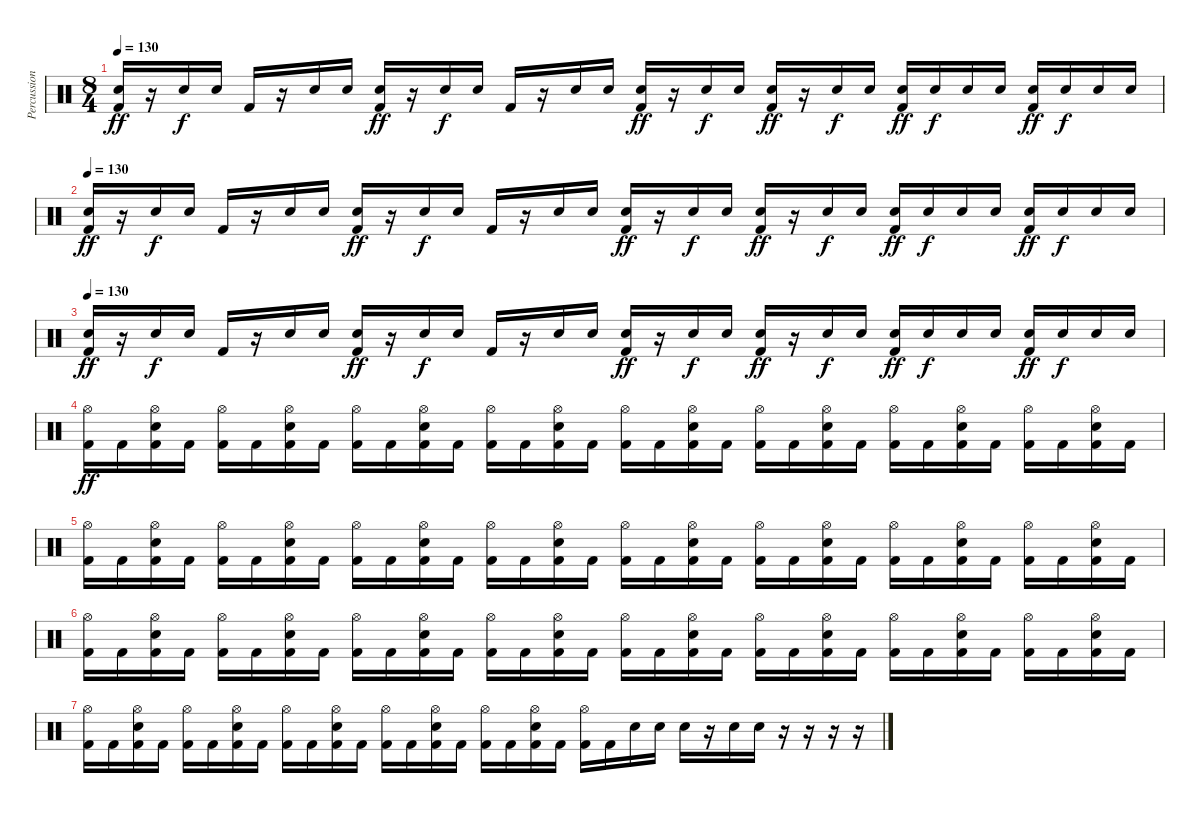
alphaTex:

\track ("Percussion" "Percussion") {instrument percussion}
\staff {score}
\articulation defaults
\ts (8 4)
\tempo 130
\clef neutral
\ks c
("Snare (hit) 2" "Kick (hit) 2").16{dy ff} r.16 "Snare (hit) 2".16{dy f} "Snare (hit) 2".16 "Kick (hit) 2".16 r.16 "Snare (hit) 2".16 "Snare (hit) 2".16 ("Snare (hit) 2" "Kick (hit) 2").16{dy ff} r.16 "Snare (hit) 2".16{dy f} "Snare (hit) 2".16 "Kick (hit) 2".16 r.16 "Snare (hit) 2".16 "Snare (hit) 2".16 ("Snare (hit) 2" "Kick (hit) 2").16{dy ff} r.16 "Snare (hit) 2".16{dy f} "Snare (hit) 2".16 ("Snare (hit) 2" "Kick (hit) 2").16{dy ff} r.16 "Snare (hit) 2".16{dy f} "Snare (hit) 2".16 ("Snare (hit) 2" "Kick (hit) 2").16{dy ff} "Snare (hit) 2".16{dy f} "Snare (hit) 2".16 "Snare (hit) 2".16 ("Snare (hit) 2" "Kick (hit) 2").16{dy ff} "Snare (hit) 2".16{dy f} "Snare (hit) 2".16 "Snare (hit) 2".16 |
\tempo 130
("Snare (hit) 2" "Kick (hit) 2").16{dy ff} r.16 "Snare (hit) 2".16{dy f} "Snare (hit) 2".16 "Kick (hit) 2".16 r.16 "Snare (hit) 2".16 "Snare (hit) 2".16 ("Snare (hit) 2" "Kick (hit) 2").16{dy ff} r.16 "Snare (hit) 2".16{dy f} "Snare (hit) 2".16 "Kick (hit) 2".16 r.16 "Snare (hit) 2".16 "Snare (hit) 2".16 ("Snare (hit) 2" "Kick (hit) 2").16{dy ff} r.16 "Snare (hit) 2".16{dy f} "Snare (hit) 2".16 ("Snare (hit) 2" "Kick (hit) 2").16{dy ff} r.16 "Snare (hit) 2".16{dy f} "Snare (hit) 2".16 ("Snare (hit) 2" "Kick (hit) 2").16{dy ff} "Snare (hit) 2".16{dy f} "Snare (hit) 2".16 "Snare (hit) 2".16 ("Snare (hit) 2" "Kick (hit) 2").16{dy ff} "Snare (hit) 2".16{dy f} "Snare (hit) 2".16 "Snare (hit) 2".16 |
\tempo 130
("Snare (hit) 2" "Kick (hit) 2").16{dy ff} r.16 "Snare (hit) 2".16{dy f} "Snare (hit) 2".16 "Kick (hit) 2".16 r.16 "Snare (hit) 2".16 "Snare (hit) 2".16 ("Snare (hit) 2" "Kick (hit) 2").16{dy ff} r.16 "Snare (hit) 2".16{dy f} "Snare (hit) 2".16 "Kick (hit) 2".16 r.16 "Snare (hit) 2".16 "Snare (hit) 2".16 ("Snare (hit) 2" "Kick (hit) 2").16{dy ff} r.16 "Snare (hit) 2".16{dy f} "Snare (hit) 2".16 ("Snare (hit) 2" "Kick (hit) 2").16{dy ff} r.16 "Snare (hit) 2".16{dy f} "Snare (hit) 2".16 ("Snare (hit) 2" "Kick (hit) 2").16{dy ff} "Snare (hit) 2".16{dy f} "Snare (hit) 2".16 "Snare (hit) 2".16 ("Snare (hit) 2" "Kick (hit) 2").16{dy ff} "Snare (hit) 2".16{dy f} "Snare (hit) 2".16 "Snare (hit) 2".16 |
("Hi-Hat (open)" "Kick (hit) 2").16{dy ff} "Kick (hit) 2".16 ("Hi-Hat (open)" "Snare (hit) 2" "Kick (hit) 2").16 "Kick (hit) 2".16 ("Hi-Hat (open)" "Kick (hit) 2").16 "Kick (hit) 2".16 ("Hi-Hat (open)" "Snare (hit) 2" "Kick (hit) 2").16 "Kick (hit) 2".16 ("Hi-Hat (open)" "Kick (hit) 2").16 "Kick (hit) 2".16 ("Hi-Hat (open)" "Snare (hit) 2" "Kick (hit) 2").16 "Kick (hit) 2".16 ("Hi-Hat (open)" "Kick (hit) 2").16 "Kick (hit) 2".16 ("Hi-Hat (open)" "Snare (hit) 2" "Kick (hit) 2").16 "Kick (hit) 2".16 ("Hi-Hat (open)" "Kick (hit) 2").16 "Kick (hit) 2".16 ("Hi-Hat (open)" "Snare (hit) 2" "Kick (hit) 2").16 "Kick (hit) 2".16 ("Hi-Hat (open)" "Kick (hit) 2").16 "Kick (hit) 2".16 ("Hi-Hat (open)" "Snare (hit) 2" "Kick (hit) 2").16 "Kick (hit) 2".16 ("Hi-Hat (open)" "Kick (hit) 2").16 "Kick (hit) 2".16 ("Hi-Hat (open)" "Snare (hit) 2" "Kick (hit) 2").16 "Kick (hit) 2".16 ("Hi-Hat (open)" "Kick (hit) 2").16 "Kick (hit) 2".16 ("Hi-Hat (open)" "Snare (hit) 2" "Kick (hit) 2").16 "Kick (hit) 2".16 |
("Hi-Hat (open)" "Kick (hit) 2").16 "Kick (hit) 2".16 ("Hi-Hat (open)" "Snare (hit) 2" "Kick (hit) 2").16 "Kick (hit) 2".16 ("Hi-Hat (open)" "Kick (hit) 2").16 "Kick (hit) 2".16 ("Hi-Hat (open)" "Snare (hit) 2" "Kick (hit) 2").16 "Kick (hit) 2".16 ("Hi-Hat (open)" "Kick (hit) 2").16 "Kick (hit) 2".16 ("Hi-Hat (open)" "Snare (hit) 2" "Kick (hit) 2").16 "Kick (hit) 2".16 ("Hi-Hat (open)" "Kick (hit) 2").16 "Kick (hit) 2".16 ("Hi-Hat (open)" "Snare (hit) 2" "Kick (hit) 2").16 "Kick (hit) 2".16 ("Hi-Hat (open)" "Kick (hit) 2").16 "Kick (hit) 2".16 ("Hi-Hat (open)" "Snare (hit) 2" "Kick (hit) 2").16 "Kick (hit) 2".16 ("Hi-Hat (open)" "Kick (hit) 2").16 "Kick (hit) 2".16 ("Hi-Hat (open)" "Snare (hit) 2" "Kick (hit) 2").16 "Kick (hit) 2".16 ("Hi-Hat (open)" "Kick (hit) 2").16 "Kick (hit) 2".16 ("Hi-Hat (open)" "Snare (hit) 2" "Kick (hit) 2").16 "Kick (hit) 2".16 ("Hi-Hat (open)" "Kick (hit) 2").16 "Kick (hit) 2".16 ("Hi-Hat (open)" "Snare (hit) 2" "Kick (hit) 2").16 "Kick (hit) 2".16 |
("Hi-Hat (open)" "Kick (hit) 2").16 "Kick (hit) 2".16 ("Hi-Hat (open)" "Snare (hit) 2" "Kick (hit) 2").16 "Kick (hit) 2".16 ("Hi-Hat (open)" "Kick (hit) 2").16 "Kick (hit) 2".16 ("Hi-Hat (open)" "Snare (hit) 2" "Kick (hit) 2").16 "Kick (hit) 2".16 ("Hi-Hat (open)" "Kick (hit) 2").16 "Kick (hit) 2".16 ("Hi-Hat (open)" "Snare (hit) 2" "Kick (hit) 2").16 "Kick (hit) 2".16 ("Hi-Hat (open)" "Kick (hit) 2").16 "Kick (hit) 2".16 ("Hi-Hat (open)" "Snare (hit) 2" "Kick (hit) 2").16 "Kick (hit) 2".16 ("Hi-Hat (open)" "Kick (hit) 2").16 "Kick (hit) 2".16 ("Hi-Hat (open)" "Snare (hit) 2" "Kick (hit) 2").16 "Kick (hit) 2".16 ("Hi-Hat (open)" "Kick (hit) 2").16 "Kick (hit) 2".16 ("Hi-Hat (open)" "Snare (hit) 2" "Kick (hit) 2").16 "Kick (hit) 2".16 ("Hi-Hat (open)" "Kick (hit) 2").16 "Kick (hit) 2".16 ("Hi-Hat (open)" "Snare (hit) 2" "Kick (hit) 2").16 "Kick (hit) 2".16 ("Hi-Hat (open)" "Kick (hit) 2").16 "Kick (hit) 2".16 ("Hi-Hat (open)" "Snare (hit) 2" "Kick (hit) 2").16 "Kick (hit) 2".16 |
("Hi-Hat (open)" "Kick (hit) 2").16 "Kick (hit) 2".16 ("Hi-Hat (open)" "Snare (hit) 2" "Kick (hit) 2").16 "Kick (hit) 2".16 ("Hi-Hat (open)" "Kick (hit) 2").16 "Kick (hit) 2".16 ("Hi-Hat (open)" "Snare (hit) 2" "Kick (hit) 2").16 "Kick (hit) 2".16 ("Hi-Hat (open)" "Kick (hit) 2").16 "Kick (hit) 2".16 ("Hi-Hat (open)" "Snare (hit) 2" "Kick (hit) 2").16 "Kick (hit) 2".16 ("Hi-Hat (open)" "Kick (hit) 2").16 "Kick (hit) 2".16 ("Hi-Hat (open)" "Snare (hit) 2" "Kick (hit) 2").16 "Kick (hit) 2".16 ("Hi-Hat (open)" "Kick (hit) 2").16 "Kick (hit) 2".16 ("Hi-Hat (open)" "Snare (hit) 2" "Kick (hit) 2").16 "Kick (hit) 2".16 ("Hi-Hat (open)" "Kick (hit) 2").16 "Kick (hit) 2".16 "Snare (hit) 2".16 "Snare (hit) 2".16 "Snare (hit) 2".16 r.16 "Snare (hit) 2".16 "Snare (hit) 2".16 r.16 r.16 r.16 r.16
